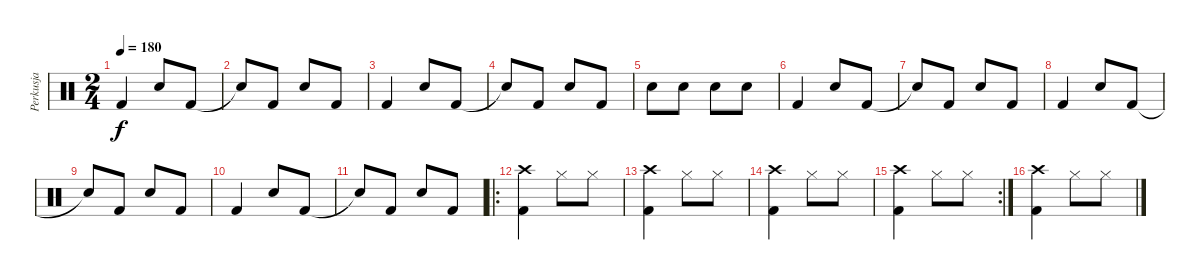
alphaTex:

\track ("Perkusja" "Perkusja") {instrument percussion}
\staff {score}
\articulation defaults
\ts (2 4)
\tempo 180
\clef neutral
\ks c "Kick (hit) 2".4{dy f} "Snare (hit) 2".8 "Kick (hit) 2".8
|
"Snare (hit)"{t}.8 "Kick (hit) 2".8 "Snare (hit) 2".8 "Kick (hit) 2".8 |
"Kick (hit) 2".4 "Snare (hit) 2".8 "Kick (hit) 2".8 |
"Snare (hit)"{t}.8 "Kick (hit) 2".8 "Snare (hit) 2".8 "Kick (hit) 2".8 |
"Snare (hit) 2".8 "Snare (hit) 2".8 "Snare (hit) 2".8 "Snare (hit) 2".8 |
"Kick (hit) 2".4 "Snare (hit) 2".8 "Kick (hit) 2".8 |
"Snare (hit)"{t}.8 "Kick (hit) 2".8 "Snare (hit) 2".8 "Kick (hit) 2".8 |
"Kick (hit) 2".4 "Snare (hit) 2".8 "Kick (hit) 2".8 |
"Snare (hit)"{t}.8 "Kick (hit) 2".8 "Snare (hit) 2".8 "Kick (hit) 2".8 |
"Kick (hit) 2".4 "Snare (hit) 2".8 "Kick (hit) 2".8 |
"Snare (hit)"{t}.8 "Kick (hit) 2".8 "Snare (hit) 2".8 "Kick (hit) 2".8 |
\ro
("Crash high (hit)" "Kick (hit) 2").4 "Hi-Hat (closed)".8 "Hi-Hat (closed)".8 |
("Crash high (hit)" "Kick (hit) 2").4 "Hi-Hat (closed)".8 "Hi-Hat (closed)".8 |
("Crash high (hit)" "Kick (hit) 2").4 "Hi-Hat (closed)".8 "Hi-Hat (closed)".8 |
\rc 2
("Crash high (hit)" "Kick (hit) 2").4 "Hi-Hat (closed)".8 "Hi-Hat (closed)".8 |
("Crash high (hit)" "Kick (hit) 2").4 "Hi-Hat (closed)".8 "Hi-Hat (closed)".8
